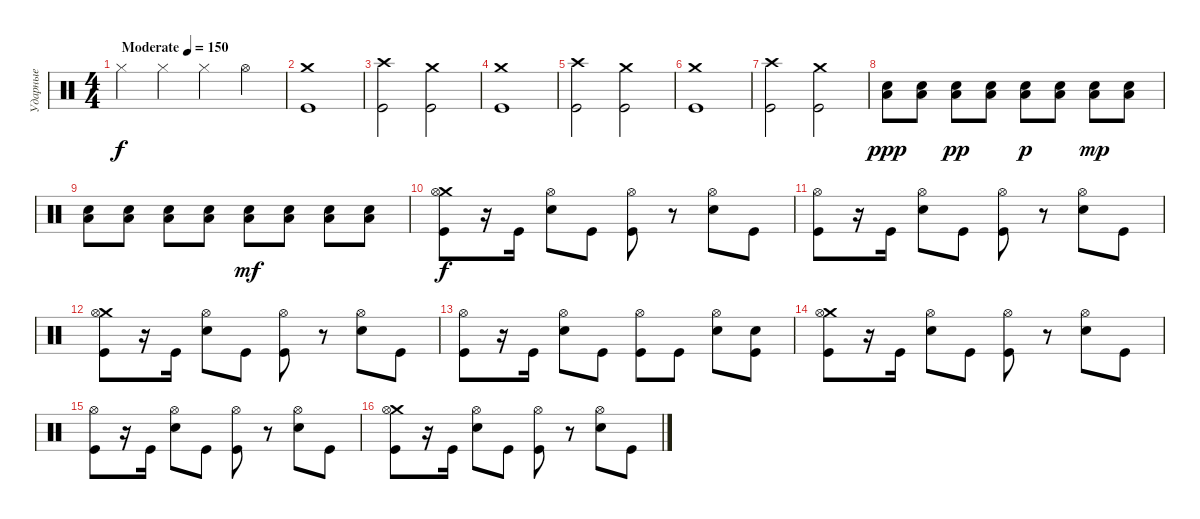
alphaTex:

\track ("Ударные" "Ударные") {instrument percussion}
\staff {score}
\articulation defaults
\ts (4 4)
\tempo (150 "Moderate")
\clef neutral
\ks c "Hi-Hat (closed)".4{dy f} "Hi-Hat (closed)".4 "Hi-Hat (closed)".4 "Hi-Hat (open)".4
|
("Crash medium (hit)" "Kick (hit)").1 |
("Crash high (hit)" "Kick (hit)").2 ("Crash medium (hit)" "Kick (hit)").2 |
("Crash medium (hit)" "Kick (hit)").1 |
("Crash high (hit)" "Kick (hit)").2 ("Crash medium (hit)" "Kick (hit)").2 |
("Crash medium (hit)" "Kick (hit)").1 |
("Crash high (hit)" "Kick (hit)").2 ("Crash medium (hit)" "Kick (hit)").2 |
("Low Floor Tom (hit)" "Electric Snare (hit)").8{dy ppp} ("Low Floor Tom (hit)" "Electric Snare (hit)").8 ("Low Floor Tom (hit)" "Electric Snare (hit)").8{dy pp} ("Low Floor Tom (hit)" "Electric Snare (hit)").8 ("Low Floor Tom (hit)" "Electric Snare (hit)").8{dy p} ("Low Floor Tom (hit)" "Electric Snare (hit)").8 ("Low Floor Tom (hit)" "Electric Snare (hit)").8{dy mp} ("Low Floor Tom (hit)" "Electric Snare (hit)").8 |
("Low Floor Tom (hit)" "Electric Snare (hit)").8 ("Low Floor Tom (hit)" "Electric Snare (hit)").8 ("Low Floor Tom (hit)" "Electric Snare (hit)").8 ("Low Floor Tom (hit)" "Electric Snare (hit)").8 ("Low Floor Tom (hit)" "Electric Snare (hit)").8{dy mf} ("Low Floor Tom (hit)" "Electric Snare (hit)").8 ("Low Floor Tom (hit)" "Electric Snare (hit)").8 ("Low Floor Tom (hit)" "Electric Snare (hit)").8 |
("Crash medium (hit)" "Hi-Hat (open)" "Kick (hit)").8{dy f} r.16 "Kick (hit)".16 ("Hi-Hat (open)" "Electric Snare (hit)").8 "Kick (hit)".8 ("Hi-Hat (open)" "Kick (hit)").8 r.8 ("Hi-Hat (open)" "Electric Snare (hit)").8 "Kick (hit)".8 |
("Hi-Hat (open)" "Kick (hit)").8 r.16 "Kick (hit)".16 ("Hi-Hat (open)" "Electric Snare (hit)").8 "Kick (hit)".8 ("Hi-Hat (open)" "Kick (hit)").8 r.8 ("Hi-Hat (open)" "Electric Snare (hit)").8 "Kick (hit)".8 |
("Crash medium (hit)" "Hi-Hat (open)" "Kick (hit)").8 r.16 "Kick (hit)".16 ("Hi-Hat (open)" "Electric Snare (hit)").8 "Kick (hit)".8 ("Hi-Hat (open)" "Kick (hit)").8 r.8 ("Hi-Hat (open)" "Electric Snare (hit)").8 "Kick (hit)".8 |
("Hi-Hat (open)" "Kick (hit)").8 r.16 "Kick (hit)".16 ("Hi-Hat (open)" "Electric Snare (hit)").8 "Kick (hit)".8 ("Hi-Hat (open)" "Kick (hit)").8 "Kick (hit)".8 ("Hi-Hat (open)" "Electric Snare (hit)").8 ("Electric Snare (hit)" "Kick (hit)").8 |
("Crash medium (hit)" "Hi-Hat (open)" "Kick (hit)").8 r.16 "Kick (hit)".16 ("Hi-Hat (open)" "Electric Snare (hit)").8 "Kick (hit)".8 ("Hi-Hat (open)" "Kick (hit)").8 r.8 ("Hi-Hat (open)" "Electric Snare (hit)").8 "Kick (hit)".8 |
("Hi-Hat (open)" "Kick (hit)").8 r.16 "Kick (hit)".16 ("Hi-Hat (open)" "Electric Snare (hit)").8 "Kick (hit)".8 ("Hi-Hat (open)" "Kick (hit)").8 r.8 ("Hi-Hat (open)" "Electric Snare (hit)").8 "Kick (hit)".8 |
("Crash medium (hit)" "Hi-Hat (open)" "Kick (hit)").8 r.16 "Kick (hit)".16 ("Hi-Hat (open)" "Electric Snare (hit)").8 "Kick (hit)".8 ("Hi-Hat (open)" "Kick (hit)").8 r.8 ("Hi-Hat (open)" "Electric Snare (hit)").8 "Kick (hit)".8
